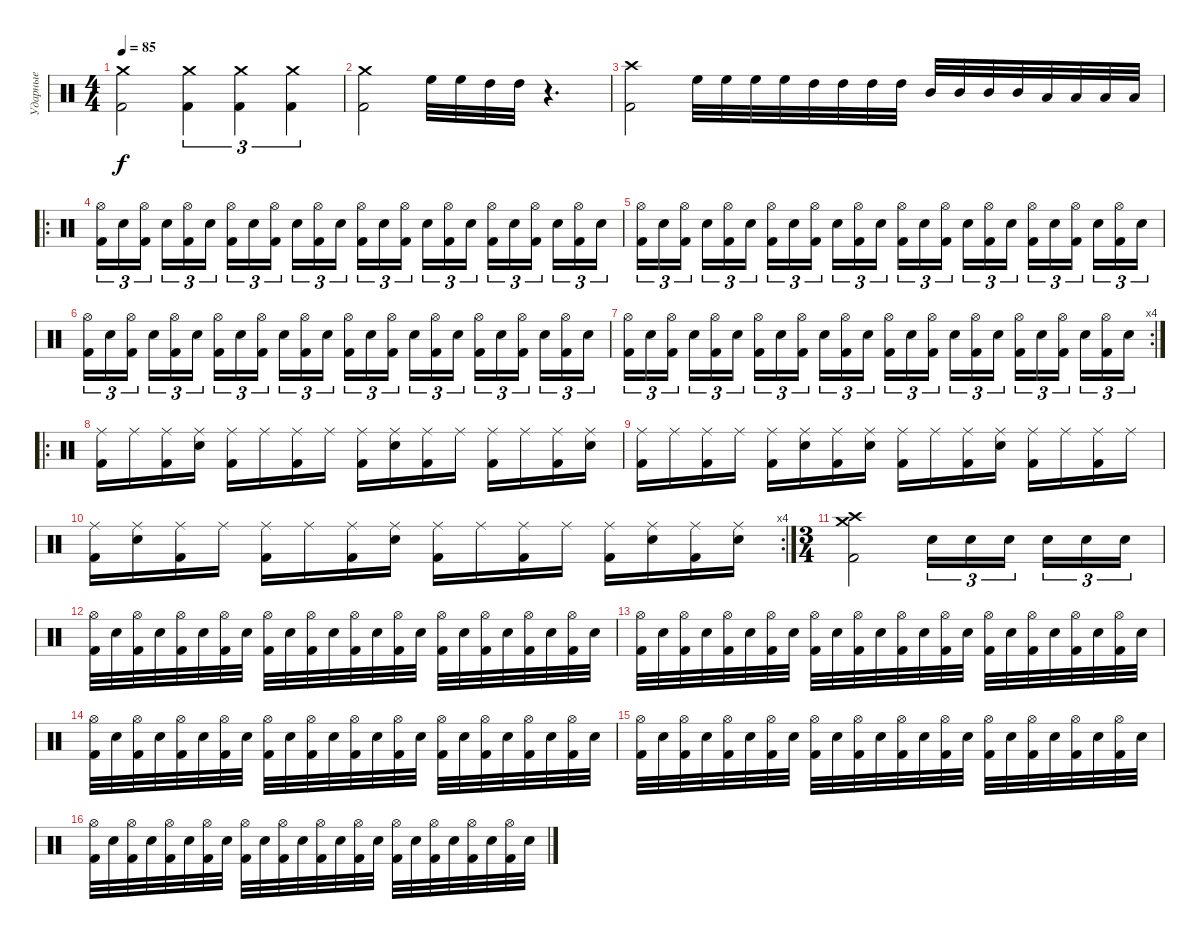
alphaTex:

\track ("Ударные" "Ударные") {instrument percussion}
\staff {score}
\articulation defaults
\ts (4 4)
\tempo 85
\clef neutral
\ks c
("Kick (hit) 2" "Crash medium (hit)").2{dy f} ("Crash medium (hit)" "Kick (hit) 2").4{tu (3 2)} ("Crash medium (hit)" "Kick (hit) 2").4{tu (3 2)} ("Crash medium (hit)" "Kick (hit) 2").4{tu (3 2)} |
("Kick (hit) 2" "Crash medium (hit)").2 "High Floor Tom (hit)".32 "High Floor Tom (hit)".32 "High Tom (hit)".32 "High Tom (hit)".32 r.4{d} |
("Kick (hit) 2" "Crash high (hit)").2 "High Floor Tom (hit)".32 "High Floor Tom (hit)".32 "High Floor Tom (hit)".32 "High Floor Tom (hit)".32 "High Tom (hit)".32 "High Tom (hit)".32 "High Tom (hit)".32 "High Tom (hit)".32 "Mid Tom (hit)".32 "Mid Tom (hit)".32 "Mid Tom (hit)".32 "Mid Tom (hit)".32 "Low Tom (hit)".32 "Low Tom (hit)".32 "Low Tom (hit)".32 "Low Tom (hit)".32 |
\ro
("Kick (hit) 2" "Hi-Hat (open)").16{tu (3 2)} "Electric Snare (hit)".16{tu (3 2)} ("Kick (hit) 2" "Hi-Hat (open)").16{tu (3 2) beam splitsecondary} "Electric Snare (hit)".16{tu (3 2)} ("Kick (hit) 2" "Hi-Hat (open)").16{tu (3 2)} "Electric Snare (hit)".16{tu (3 2)} ("Kick (hit) 2" "Hi-Hat (open)").16{tu (3 2)} "Electric Snare (hit)".16{tu (3 2)} ("Kick (hit) 2" "Hi-Hat (open)").16{tu (3 2) beam splitsecondary} "Electric Snare (hit)".16{tu (3 2)} ("Kick (hit) 2" "Hi-Hat (open)").16{tu (3 2)} "Electric Snare (hit)".16{tu (3 2)} ("Kick (hit) 2" "Hi-Hat (open)").16{tu (3 2)} "Electric Snare (hit)".16{tu (3 2)} ("Kick (hit) 2" "Hi-Hat (open)").16{tu (3 2) beam splitsecondary} "Electric Snare (hit)".16{tu (3 2)} ("Kick (hit) 2" "Hi-Hat (open)").16{tu (3 2)} "Electric Snare (hit)".16{tu (3 2)} ("Kick (hit) 2" "Hi-Hat (open)").16{tu (3 2)} "Electric Snare (hit)".16{tu (3 2)} ("Kick (hit) 2" "Hi-Hat (open)").16{tu (3 2) beam splitsecondary} "Electric Snare (hit)".16{tu (3 2)} ("Kick (hit) 2" "Hi-Hat (open)").16{tu (3 2)} "Electric Snare (hit)".16{tu (3 2)} |
("Kick (hit) 2" "Hi-Hat (open)").16{tu (3 2)} "Electric Snare (hit)".16{tu (3 2)} ("Kick (hit) 2" "Hi-Hat (open)").16{tu (3 2) beam splitsecondary} "Electric Snare (hit)".16{tu (3 2)} ("Kick (hit) 2" "Hi-Hat (open)").16{tu (3 2)} "Electric Snare (hit)".16{tu (3 2)} ("Kick (hit) 2" "Hi-Hat (open)").16{tu (3 2)} "Electric Snare (hit)".16{tu (3 2)} ("Kick (hit) 2" "Hi-Hat (open)").16{tu (3 2) beam splitsecondary} "Electric Snare (hit)".16{tu (3 2)} ("Kick (hit) 2" "Hi-Hat (open)").16{tu (3 2)} "Electric Snare (hit)".16{tu (3 2)} ("Kick (hit) 2" "Hi-Hat (open)").16{tu (3 2)} "Electric Snare (hit)".16{tu (3 2)} ("Kick (hit) 2" "Hi-Hat (open)").16{tu (3 2) beam splitsecondary} "Electric Snare (hit)".16{tu (3 2)} ("Kick (hit) 2" "Hi-Hat (open)").16{tu (3 2)} "Electric Snare (hit)".16{tu (3 2)} ("Kick (hit) 2" "Hi-Hat (open)").16{tu (3 2)} "Electric Snare (hit)".16{tu (3 2)} ("Kick (hit) 2" "Hi-Hat (open)").16{tu (3 2) beam splitsecondary} "Electric Snare (hit)".16{tu (3 2)} ("Kick (hit) 2" "Hi-Hat (open)").16{tu (3 2)} "Electric Snare (hit)".16{tu (3 2)} |
("Kick (hit) 2" "Hi-Hat (open)").16{tu (3 2)} "Electric Snare (hit)".16{tu (3 2)} ("Kick (hit) 2" "Hi-Hat (open)").16{tu (3 2) beam splitsecondary} "Electric Snare (hit)".16{tu (3 2)} ("Kick (hit) 2" "Hi-Hat (open)").16{tu (3 2)} "Electric Snare (hit)".16{tu (3 2)} ("Kick (hit) 2" "Hi-Hat (open)").16{tu (3 2)} "Electric Snare (hit)".16{tu (3 2)} ("Kick (hit) 2" "Hi-Hat (open)").16{tu (3 2) beam splitsecondary} "Electric Snare (hit)".16{tu (3 2)} ("Kick (hit) 2" "Hi-Hat (open)").16{tu (3 2)} "Electric Snare (hit)".16{tu (3 2)} ("Kick (hit) 2" "Hi-Hat (open)").16{tu (3 2)} "Electric Snare (hit)".16{tu (3 2)} ("Kick (hit) 2" "Hi-Hat (open)").16{tu (3 2) beam splitsecondary} "Electric Snare (hit)".16{tu (3 2)} ("Kick (hit) 2" "Hi-Hat (open)").16{tu (3 2)} "Electric Snare (hit)".16{tu (3 2)} ("Kick (hit) 2" "Hi-Hat (open)").16{tu (3 2)} "Electric Snare (hit)".16{tu (3 2)} ("Kick (hit) 2" "Hi-Hat (open)").16{tu (3 2) beam splitsecondary} "Electric Snare (hit)".16{tu (3 2)} ("Kick (hit) 2" "Hi-Hat (open)").16{tu (3 2)} "Electric Snare (hit)".16{tu (3 2)} |
\rc 4
("Kick (hit) 2" "Hi-Hat (open)").16{tu (3 2)} "Electric Snare (hit)".16{tu (3 2)} ("Kick (hit) 2" "Hi-Hat (open)").16{tu (3 2) beam splitsecondary} "Electric Snare (hit)".16{tu (3 2)} ("Kick (hit) 2" "Hi-Hat (open)").16{tu (3 2)} "Electric Snare (hit)".16{tu (3 2)} ("Kick (hit) 2" "Hi-Hat (open)").16{tu (3 2)} "Electric Snare (hit)".16{tu (3 2)} ("Kick (hit) 2" "Hi-Hat (open)").16{tu (3 2) beam splitsecondary} "Electric Snare (hit)".16{tu (3 2)} ("Kick (hit) 2" "Hi-Hat (open)").16{tu (3 2)} "Electric Snare (hit)".16{tu (3 2)} ("Kick (hit) 2" "Hi-Hat (open)").16{tu (3 2)} "Electric Snare (hit)".16{tu (3 2)} ("Kick (hit) 2" "Hi-Hat (open)").16{tu (3 2) beam splitsecondary} "Electric Snare (hit)".16{tu (3 2)} ("Kick (hit) 2" "Hi-Hat (open)").16{tu (3 2)} "Electric Snare (hit)".16{tu (3 2)} ("Kick (hit) 2" "Hi-Hat (open)").16{tu (3 2)} "Electric Snare (hit)".16{tu (3 2)} ("Kick (hit) 2" "Hi-Hat (open)").16{tu (3 2) beam splitsecondary} "Electric Snare (hit)".16{tu (3 2)} ("Kick (hit) 2" "Hi-Hat (open)").16{tu (3 2)} "Electric Snare (hit)".16{tu (3 2)} |
\ro
("Ride (middle)" "Kick (hit) 2").16 "Ride (middle)".16 ("Ride (middle)" "Kick (hit) 2").16 ("Ride (middle)" "Electric Snare (hit)").16 ("Ride (middle)" "Kick (hit) 2").16 "Ride (middle)".16 ("Ride (middle)" "Kick (hit) 2").16 "Ride (middle)".16 ("Ride (middle)" "Kick (hit) 2").16 ("Ride (middle)" "Electric Snare (hit)").16 ("Ride (middle)" "Kick (hit) 2").16 "Ride (middle)".16 ("Ride (middle)" "Kick (hit) 2").16 "Ride (middle)".16 ("Ride (middle)" "Kick (hit) 2").16 ("Ride (middle)" "Electric Snare (hit)").16 |
("Ride (middle)" "Kick (hit) 2").16 "Ride (middle)".16 ("Ride (middle)" "Kick (hit) 2").16 "Ride (middle)".16 ("Ride (middle)" "Kick (hit) 2").16 ("Ride (middle)" "Electric Snare (hit)").16 ("Ride (middle)" "Kick (hit) 2").16 ("Ride (middle)" "Electric Snare (hit)").16 ("Ride (middle)" "Kick (hit) 2").16 "Ride (middle)".16 ("Ride (middle)" "Kick (hit) 2").16 ("Ride (middle)" "Electric Snare (hit)").16 ("Ride (middle)" "Kick (hit) 2").16 "Ride (middle)".16 ("Ride (middle)" "Kick (hit) 2").16 "Ride (middle)".16 |
\rc 4
("Ride (middle)" "Kick (hit) 2").16 ("Ride (middle)" "Electric Snare (hit)").16 ("Ride (middle)" "Kick (hit) 2").16 "Ride (middle)".16 ("Ride (middle)" "Kick (hit) 2").16 "Ride (middle)".16 ("Ride (middle)" "Kick (hit) 2").16 ("Ride (middle)" "Electric Snare (hit)").16 ("Ride (middle)" "Kick (hit) 2").16 "Ride (middle)".16 ("Ride (middle)" "Kick (hit) 2").16 "Ride (middle)".16 ("Ride (middle)" "Kick (hit) 2").16 ("Ride (middle)" "Electric Snare (hit)").16 ("Ride (middle)" "Kick (hit) 2").16 ("Ride (middle)" "Electric Snare (hit)").16 |
\ts (3 4)
("Crash medium (hit)" "Crash high (hit)" "Kick (hit) 2").2 "Electric Snare (hit)".16{tu (3 2)} "Electric Snare (hit)".16{tu (3 2)} "Electric Snare (hit)".16{tu (3 2) beam splitsecondary} "Electric Snare (hit)".16{tu (3 2)} "Electric Snare (hit)".16{tu (3 2)} "Electric Snare (hit)".16{tu (3 2)} |
("Kick (hit) 2" "Hi-Hat (open)").32 "Electric Snare (hit)".32 ("Kick (hit) 2" "Hi-Hat (open)").32 "Electric Snare (hit)".32 ("Kick (hit) 2" "Hi-Hat (open)").32 "Electric Snare (hit)".32 ("Kick (hit) 2" "Hi-Hat (open)").32 "Electric Snare (hit)".32 ("Kick (hit) 2" "Hi-Hat (open)").32 "Electric Snare (hit)".32 ("Kick (hit) 2" "Hi-Hat (open)").32 "Electric Snare (hit)".32 ("Kick (hit) 2" "Hi-Hat (open)").32 "Electric Snare (hit)".32 ("Kick (hit) 2" "Hi-Hat (open)").32 "Electric Snare (hit)".32 ("Kick (hit) 2" "Hi-Hat (open)").32 "Electric Snare (hit)".32 ("Kick (hit) 2" "Hi-Hat (open)").32 "Electric Snare (hit)".32 ("Kick (hit) 2" "Hi-Hat (open)").32 "Electric Snare (hit)".32 ("Kick (hit) 2" "Hi-Hat (open)").32 "Electric Snare (hit)".32 |
("Kick (hit) 2" "Hi-Hat (open)").32 "Electric Snare (hit)".32 ("Kick (hit) 2" "Hi-Hat (open)").32 "Electric Snare (hit)".32 ("Kick (hit) 2" "Hi-Hat (open)").32 "Electric Snare (hit)".32 ("Kick (hit) 2" "Hi-Hat (open)").32 "Electric Snare (hit)".32 ("Kick (hit) 2" "Hi-Hat (open)").32 "Electric Snare (hit)".32 ("Kick (hit) 2" "Hi-Hat (open)").32 "Electric Snare (hit)".32 ("Kick (hit) 2" "Hi-Hat (open)").32 "Electric Snare (hit)".32 ("Kick (hit) 2" "Hi-Hat (open)").32 "Electric Snare (hit)".32 ("Kick (hit) 2" "Hi-Hat (open)").32 "Electric Snare (hit)".32 ("Kick (hit) 2" "Hi-Hat (open)").32 "Electric Snare (hit)".32 ("Kick (hit) 2" "Hi-Hat (open)").32 "Electric Snare (hit)".32 ("Kick (hit) 2" "Hi-Hat (open)").32 "Electric Snare (hit)".32 |
("Kick (hit) 2" "Hi-Hat (open)").32 "Electric Snare (hit)".32 ("Kick (hit) 2" "Hi-Hat (open)").32 "Electric Snare (hit)".32 ("Kick (hit) 2" "Hi-Hat (open)").32 "Electric Snare (hit)".32 ("Kick (hit) 2" "Hi-Hat (open)").32 "Electric Snare (hit)".32 ("Kick (hit) 2" "Hi-Hat (open)").32 "Electric Snare (hit)".32 ("Kick (hit) 2" "Hi-Hat (open)").32 "Electric Snare (hit)".32 ("Kick (hit) 2" "Hi-Hat (open)").32 "Electric Snare (hit)".32 ("Kick (hit) 2" "Hi-Hat (open)").32 "Electric Snare (hit)".32 ("Kick (hit) 2" "Hi-Hat (open)").32 "Electric Snare (hit)".32 ("Kick (hit) 2" "Hi-Hat (open)").32 "Electric Snare (hit)".32 ("Kick (hit) 2" "Hi-Hat (open)").32 "Electric Snare (hit)".32 ("Kick (hit) 2" "Hi-Hat (open)").32 "Electric Snare (hit)".32 |
("Kick (hit) 2" "Hi-Hat (open)").32 "Electric Snare (hit)".32 ("Kick (hit) 2" "Hi-Hat (open)").32 "Electric Snare (hit)".32 ("Kick (hit) 2" "Hi-Hat (open)").32 "Electric Snare (hit)".32 ("Kick (hit) 2" "Hi-Hat (open)").32 "Electric Snare (hit)".32 ("Kick (hit) 2" "Hi-Hat (open)").32 "Electric Snare (hit)".32 ("Kick (hit) 2" "Hi-Hat (open)").32 "Electric Snare (hit)".32 ("Kick (hit) 2" "Hi-Hat (open)").32 "Electric Snare (hit)".32 ("Kick (hit) 2" "Hi-Hat (open)").32 "Electric Snare (hit)".32 ("Kick (hit) 2" "Hi-Hat (open)").32 "Electric Snare (hit)".32 ("Kick (hit) 2" "Hi-Hat (open)").32 "Electric Snare (hit)".32 ("Kick (hit) 2" "Hi-Hat (open)").32 "Electric Snare (hit)".32 ("Kick (hit) 2" "Hi-Hat (open)").32 "Electric Snare (hit)".32 |
("Kick (hit) 2" "Hi-Hat (open)").32 "Electric Snare (hit)".32 ("Kick (hit) 2" "Hi-Hat (open)").32 "Electric Snare (hit)".32 ("Kick (hit) 2" "Hi-Hat (open)").32 "Electric Snare (hit)".32 ("Kick (hit) 2" "Hi-Hat (open)").32 "Electric Snare (hit)".32 ("Kick (hit) 2" "Hi-Hat (open)").32 "Electric Snare (hit)".32 ("Kick (hit) 2" "Hi-Hat (open)").32 "Electric Snare (hit)".32 ("Kick (hit) 2" "Hi-Hat (open)").32 "Electric Snare (hit)".32 ("Kick (hit) 2" "Hi-Hat (open)").32 "Electric Snare (hit)".32 ("Kick (hit) 2" "Hi-Hat (open)").32 "Electric Snare (hit)".32 ("Kick (hit) 2" "Hi-Hat (open)").32 "Electric Snare (hit)".32 ("Kick (hit) 2" "Hi-Hat (open)").32 "Electric Snare (hit)".32 ("Kick (hit) 2" "Hi-Hat (open)").32 "Electric Snare (hit)".32
